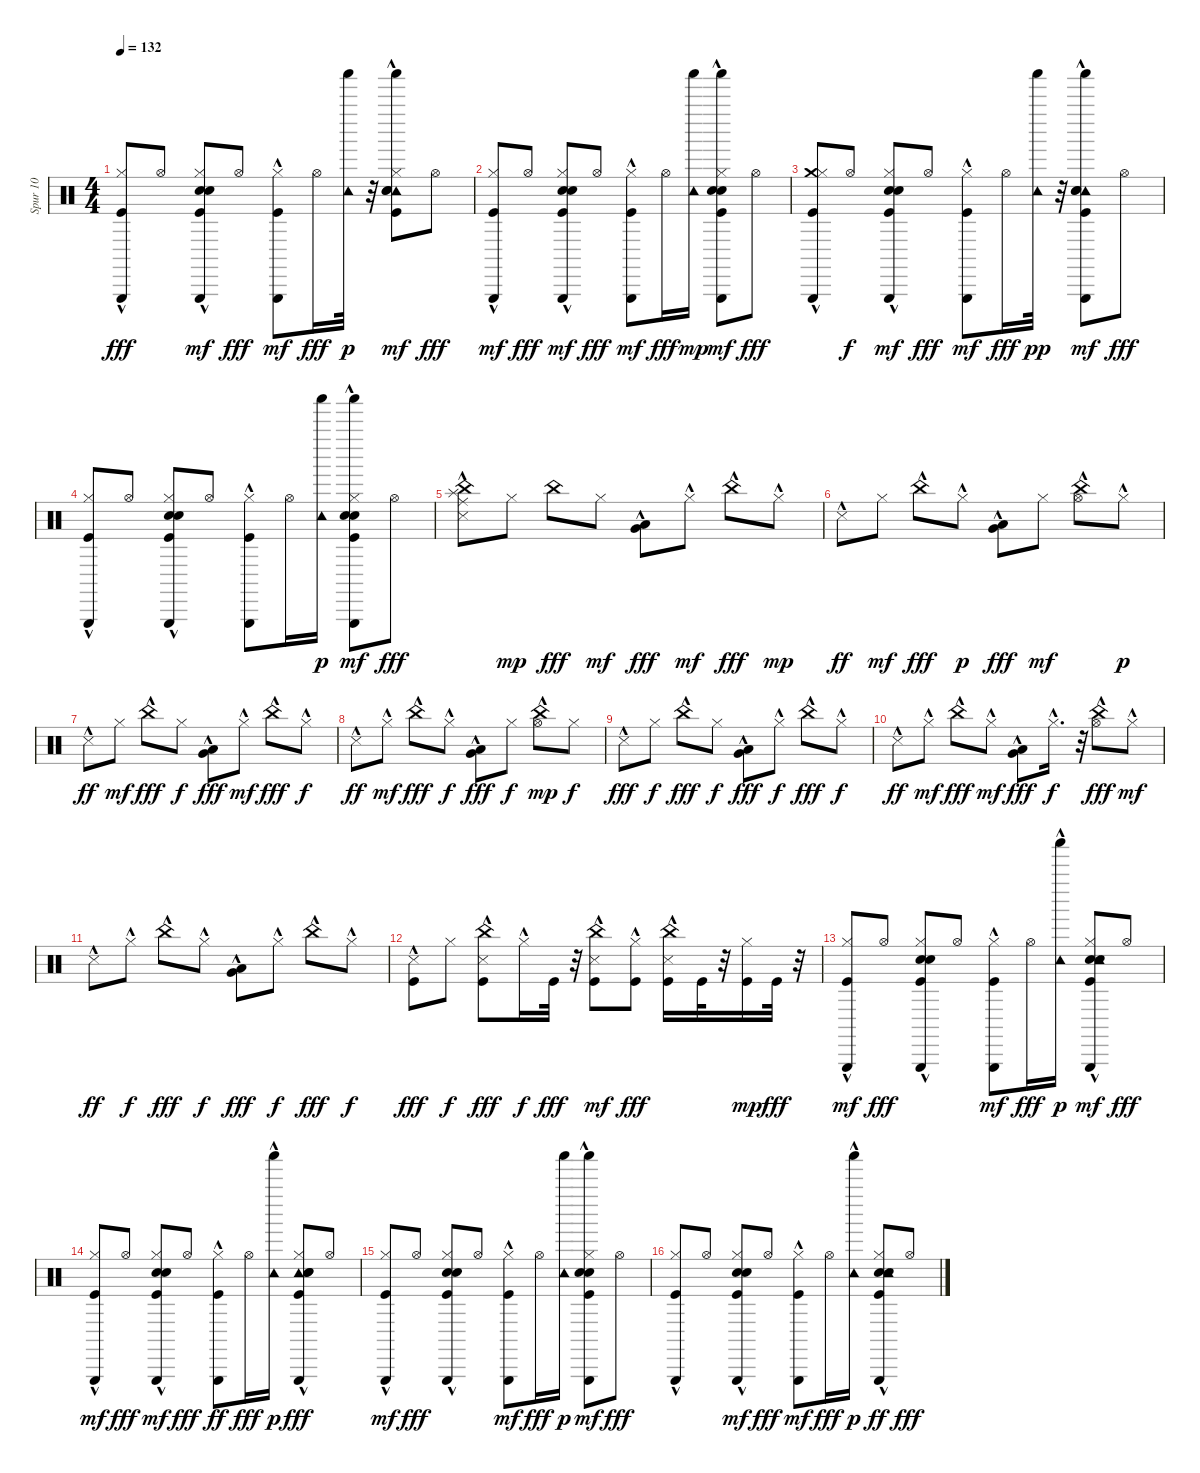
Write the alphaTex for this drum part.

\track ("Spur 10" "Spur 10") {instrument percussion}
\staff {score}
\articulation defaults
\ts (4 4)
\tempo 132
\clef neutral
\ks c
("Triangle (hit)"{hac} "Kick (hit)"{hac} "Hi-Hat (closed)").8{dy fff} "Hi-Hat (open)".8 ("Kick (hit)"{hac} "Hand Clap (hit)"{hac} "Snare (hit) 2"{hac} "Hi-Hat (closed)" "Triangle (hit)"{hac}).8{dy mf} "Hi-Hat (open)".8{dy fff} ("Hi-Hat (closed)" "Kick (hit)"{hac} "Triangle (hit)"{hac}).8{dy mf} "Hi-Hat (open)".16{dy fff} ("Tambourine (hit)" "Shaker (hit)").32{dy p} r.32 ("Shaker (hit)" "Tambourine (hit)"{hac} "Hi-Hat (closed)" "Kick (hit)"{hac} "Hand Clap (hit)"{hac} "Snare (hit) 2"{hac}).8{dy mf} "Hi-Hat (open)".8{dy fff} |
("Hi-Hat (closed)" "Kick (hit)"{hac} "Triangle (hit)"{hac}).8{dy mf} "Hi-Hat (open)".8{dy fff} ("Hi-Hat (closed)" "Kick (hit)"{hac} "Snare (hit) 2"{hac} "Hand Clap (hit)"{hac} "Triangle (hit)"{hac}).8{dy mf} "Hi-Hat (open)".8{dy fff} ("Kick (hit)"{hac} "Hi-Hat (closed)" "Triangle (hit)"{hac}).8{dy mf} "Hi-Hat (open)".16{dy fff} ("Shaker (hit)" "Tambourine (hit)").16{dy mp} ("Shaker (hit)"{hac} "Triangle (hit)"{hac} "Hi-Hat (closed)" "Kick (hit)" "Hand Clap (hit)"{hac} "Snare (hit) 2"{hac}).8{dy mf} "Hi-Hat (open)".8{dy fff} |
("Crash medium (hit)" "Triangle (hit)"{hac} "Hi-Hat (closed)" "Kick (hit)").8 "Hi-Hat (open)".8{dy f} ("Snare (hit) 2"{hac} "Hand Clap (hit)"{hac} "Kick (hit)"{hac} "Hi-Hat (closed)" "Triangle (hit)").8{dy mf} "Hi-Hat (open)".8{dy fff} ("Kick (hit)"{hac} "Hi-Hat (closed)"{hac} "Triangle (hit)"{hac}).8{dy mf} "Hi-Hat (open)".16{dy fff} ("Tambourine (hit)" "Shaker (hit)").32{dy pp} r.32 ("Shaker (hit)" "Tambourine (hit)"{hac} "Triangle (hit)" "Kick (hit)"{hac} "Hand Clap (hit)"{hac} "Snare (hit) 2"{hac}).8{dy mf} "Hi-Hat (open)".8{dy fff} |
("Triangle (hit)"{hac} "Hi-Hat (closed)" "Kick (hit)"{hac}).8 "Hi-Hat (open)".8 ("Triangle (hit)" "Hi-Hat (closed)" "Hand Clap (hit)"{hac} "Snare (hit) 2"{hac} "Kick (hit)"{hac}).8 "Hi-Hat (open)".8 ("Triangle (hit)"{hac} "Hi-Hat (closed)" "Kick (hit)"{hac}).8 "Hi-Hat (open)".16 ("Tambourine (hit)" "Shaker (hit)").16{dy p} ("Shaker (hit)" "Triangle (hit)"{hac} "Hi-Hat (closed)" "Kick (hit)"{hac} "Hand Clap (hit)" "Snare (hit) 2").8{dy mf} "Hi-Hat (open)".8{dy fff} |
("Metronome (hit)"{hac} "China (hit)"{hac} "Splash (hit)"{hac} "Ride (middle)"{hac}).8 "Hi-Hat (closed)".8{dy mp} "China (hit)".8{dy fff} "Hi-Hat (closed)".8{dy mf} ("Very Low Tom (hit)"{hac} "Low Tom (hit)"{hac}).8{dy fff} "Hi-Hat (closed)"{hac}.8{dy mf} "China (hit)"{hac}.8{dy fff} "Hi-Hat (closed)"{hac}.8{dy mp} |
"Metronome (hit)"{hac}.8{dy ff} "Hi-Hat (closed)".8{dy mf} "China (hit)"{hac}.8{dy fff} "Hi-Hat (closed)"{hac}.8{dy p} ("Very Low Tom (hit)"{hac} "Low Tom (hit)"{hac}).8{dy fff} "Hi-Hat (closed)".8{dy mf} ("China (hit)"{hac} "Hi-Hat (open)").8 "Hi-Hat (closed)"{hac}.8{dy p} |
"Metronome (hit)"{hac}.8{dy ff} "Hi-Hat (closed)".8{dy mf} "China (hit)"{hac}.8{dy fff} "Hi-Hat (closed)".8{dy f} ("Very Low Tom (hit)"{hac} "Low Tom (hit)"{hac}).8{dy fff} "Hi-Hat (closed)"{hac}.8{dy mf} "China (hit)"{hac}.8{dy fff} "Hi-Hat (closed)"{hac}.8{dy f} |
"Metronome (hit)"{hac}.8{dy ff} "Hi-Hat (closed)"{hac}.8{dy mf} "China (hit)"{hac}.8{dy fff} "Hi-Hat (closed)"{hac}.8{dy f} ("Very Low Tom (hit)"{hac} "Low Tom (hit)").8{dy fff} "Hi-Hat (closed)".8{dy f} ("China (hit)"{hac} "Hi-Hat (open)").8{dy mp} "Hi-Hat (closed)".8{dy f} |
"Metronome (hit)"{hac}.8{dy fff} "Hi-Hat (closed)".8{dy f} "China (hit)"{hac}.8{dy fff} "Hi-Hat (closed)".8{dy f} ("Very Low Tom (hit)"{hac} "Low Tom (hit)"{hac}).8{dy fff} "Hi-Hat (closed)"{hac}.8{dy f} "China (hit)"{hac}.8{dy fff} "Hi-Hat (closed)"{hac}.8{dy f} |
"Metronome (hit)"{hac}.8{dy ff} "Hi-Hat (closed)"{hac}.8{dy mf} "China (hit)"{hac}.8{dy fff} "Hi-Hat (closed)"{hac}.8{dy mf} ("Very Low Tom (hit)"{hac} "Low Tom (hit)"{hac}).8{dy fff} "Hi-Hat (closed)"{hac}.16{d dy f} r.32 ("China (hit)"{hac} "Hi-Hat (open)").8{dy fff} "Hi-Hat (closed)"{hac}.8{dy mf} |
"Metronome (hit)"{hac}.8{dy ff} "Hi-Hat (closed)"{hac}.8{dy f} "China (hit)"{hac}.8{dy fff} "Hi-Hat (closed)"{hac}.8{dy f} ("Very Low Tom (hit)"{hac} "Low Tom (hit)"{hac}).8{dy fff} "Hi-Hat (closed)"{hac}.8{dy f} "China (hit)"{hac}.8{dy fff} "Hi-Hat (closed)"{hac}.8{dy f} |
("Metronome (hit)"{hac} "Kick (hit)").8{dy fff} "Hi-Hat (closed)".8{dy f} ("Metronome (hit)"{hac} "China (hit)"{hac} "Kick (hit)").8{dy fff} "Hi-Hat (closed)"{hac}.16{dy f} "Kick (hit)".32{dy fff} r.32 ("China (hit)"{hac} "Kick (hit)" "Metronome (hit)"{hac}).8{dy mf} ("Hi-Hat (closed)"{hac} "Kick (hit)").8{dy fff} ("China (hit)"{hac} "Kick (hit)" "Metronome (hit)").16 "Kick (hit)".32 r.32 ("Kick (hit)" "Hi-Hat (closed)").16{dy mp} "Kick (hit)".32{dy fff} r.32 |
("Kick (hit)"{hac} "Hi-Hat (closed)" "Triangle (hit)"{hac}).8{dy mf} "Hi-Hat (open)".8{dy fff} ("Triangle (hit)"{hac} "Kick (hit)"{hac} "Hand Clap (hit)"{hac} "Snare (hit) 2"{hac} "Hi-Hat (closed)").8 "Hi-Hat (open)".8 ("Kick (hit)"{hac} "Hi-Hat (closed)" "Triangle (hit)"{hac}).8{dy mf} "Hi-Hat (open)".16{dy fff} ("Tambourine (hit)" "Shaker (hit)"{hac}).16{dy p} ("Kick (hit)"{hac} "Snare (hit) 2"{hac} "Hand Clap (hit)"{hac} "Hi-Hat (closed)" "Triangle (hit)"{hac} "Tambourine (hit)"{hac}).8{dy mf} "Hi-Hat (open)".8{dy fff} |
("Kick (hit)"{hac} "Hi-Hat (closed)" "Triangle (hit)"{hac}).8{dy mf} "Hi-Hat (open)".8{dy fff} ("Triangle (hit)"{hac} "Hi-Hat (closed)" "Kick (hit)"{hac} "Hand Clap (hit)"{hac} "Snare (hit) 2"{hac}).8{dy mf} "Hi-Hat (open)".8{dy fff} ("Triangle (hit)"{hac} "Kick (hit)"{hac} "Hi-Hat (closed)").8{dy ff} "Hi-Hat (open)".16{dy fff} ("Tambourine (hit)" "Shaker (hit)"{hac}).16{dy p} ("Tambourine (hit)"{hac} "Triangle (hit)"{hac} "Kick (hit)"{hac} "Snare (hit) 2"{hac} "Hand Clap (hit)"{hac} "Hi-Hat (closed)").8{dy fff} "Hi-Hat (open)".8 |
("Kick (hit)"{hac} "Hi-Hat (closed)" "Triangle (hit)"{hac}).8{dy mf} "Hi-Hat (open)".8{dy fff} ("Triangle (hit)"{hac} "Hi-Hat (closed)" "Hand Clap (hit)"{hac} "Snare (hit) 2"{hac} "Kick (hit)"{hac}).8 "Hi-Hat (open)".8 ("Hi-Hat (closed)" "Kick (hit)"{hac} "Triangle (hit)"{hac}).8{dy mf} "Hi-Hat (open)".16{dy fff} ("Shaker (hit)" "Tambourine (hit)").16{dy p} ("Shaker (hit)" "Triangle (hit)"{hac} "Hi-Hat (closed)" "Kick (hit)"{hac} "Hand Clap (hit)"{hac} "Snare (hit) 2"{hac}).8{dy mf} "Hi-Hat (open)".8{dy fff} |
("Triangle (hit)"{hac} "Hi-Hat (closed)" "Kick (hit)"{hac}).8 "Hi-Hat (open)".8 ("Hi-Hat (closed)" "Kick (hit)"{hac} "Snare (hit) 2"{hac} "Hand Clap (hit)"{hac} "Triangle (hit)"{hac}).8{dy mf} "Hi-Hat (open)".8{dy fff} ("Kick (hit)"{hac} "Hi-Hat (closed)" "Triangle (hit)"{hac}).8{dy mf} "Hi-Hat (open)".16{dy fff} ("Tambourine (hit)" "Shaker (hit)"{hac}).16{dy p} ("Triangle (hit)"{hac} "Hi-Hat (closed)" "Hand Clap (hit)"{hac} "Snare (hit) 2"{hac} "Kick (hit)"{hac} "Tambourine (hit)").8{dy ff} "Hi-Hat (open)".8{dy fff}
